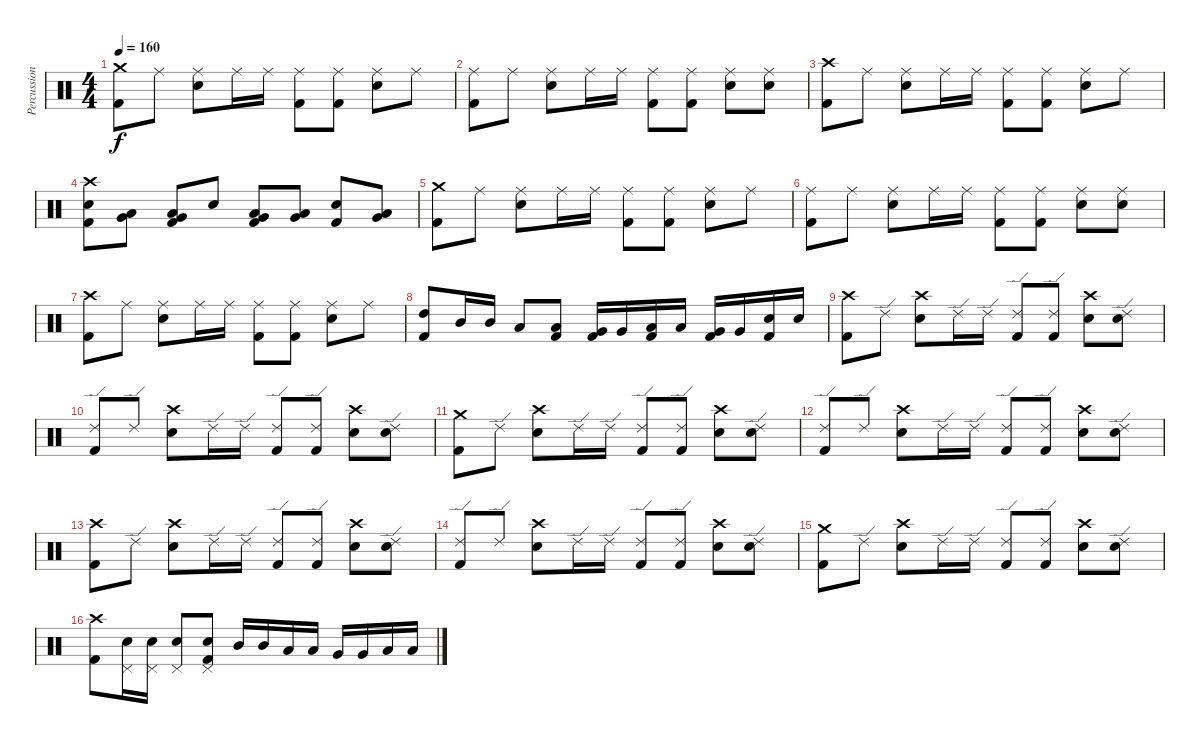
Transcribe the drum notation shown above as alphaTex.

\track ("Percussion" "Percussion") {instrument percussion}
\staff {score}
\articulation defaults
\ts (4 4)
\tempo 160
\clef neutral
\ks c
("Crash medium (hit)" "Kick (hit) 2").8{dy f} "Ride (middle)".8 ("Ride (middle)" "Electric Snare (hit)").8 "Ride (middle)".16 "Ride (middle)".16 ("Ride (middle)" "Kick (hit) 2").8 ("Ride (middle)" "Kick (hit) 2").8 ("Ride (middle)" "Electric Snare (hit)").8 "Ride (middle)".8 |
("Ride (middle)" "Kick (hit) 2").8 "Ride (middle)".8 ("Ride (middle)" "Electric Snare (hit)").8 "Ride (middle)".16 "Ride (middle)".16 ("Ride (middle)" "Kick (hit) 2").8 ("Ride (middle)" "Kick (hit) 2").8 ("Ride (middle)" "Electric Snare (hit)").8 ("Ride (middle)" "Electric Snare (hit)").8 |
("Crash high (hit)" "Kick (hit) 2").8 "Ride (middle)".8 ("Ride (middle)" "Electric Snare (hit)").8 "Ride (middle)".16 "Ride (middle)".16 ("Ride (middle)" "Kick (hit) 2").8 ("Ride (middle)" "Kick (hit) 2").8 ("Ride (middle)" "Electric Snare (hit)").8 "Ride (middle)".8 |
("Crash high (hit)" "Electric Snare (hit)" "Kick (hit) 2").8 ("Very Low Tom (hit)" "Low Floor Tom (hit)").8 ("Very Low Tom (hit)" "Low Floor Tom (hit)" "Kick (hit) 2").8 "Electric Snare (hit)".8 ("Very Low Tom (hit)" "Low Floor Tom (hit)" "Kick (hit) 2").8 ("Very Low Tom (hit)" "Low Floor Tom (hit)").8 ("Electric Snare (hit)" "Kick (hit) 2").8 ("Very Low Tom (hit)" "Low Floor Tom (hit)").8 |
("Crash medium (hit)" "Kick (hit) 2").8 "Ride (middle)".8 ("Ride (middle)" "Electric Snare (hit)").8 "Ride (middle)".16 "Ride (middle)".16 ("Ride (middle)" "Kick (hit) 2").8 ("Ride (middle)" "Kick (hit) 2").8 ("Ride (middle)" "Electric Snare (hit)").8 "Ride (middle)".8 |
("Ride (middle)" "Kick (hit) 2").8 "Ride (middle)".8 ("Ride (middle)" "Electric Snare (hit)").8 "Ride (middle)".16 "Ride (middle)".16 ("Ride (middle)" "Kick (hit) 2").8 ("Ride (middle)" "Kick (hit) 2").8 ("Ride (middle)" "Electric Snare (hit)").8 ("Ride (middle)" "Electric Snare (hit)").8 |
("Crash high (hit)" "Kick (hit) 2").8 "Ride (middle)".8 ("Ride (middle)" "Electric Snare (hit)").8 "Ride (middle)".16 "Ride (middle)".16 ("Ride (middle)" "Kick (hit) 2").8 ("Ride (middle)" "Kick (hit) 2").8 ("Ride (middle)" "Electric Snare (hit)").8 "Ride (middle)".8 |
("High Tom (hit)" "Kick (hit) 2").8 "Mid Tom (hit)".16 "Mid Tom (hit)".16 "Low Tom (hit)".8 ("Low Tom (hit)" "Kick (hit) 2").8 ("Very Low Tom (hit)" "Kick (hit) 2").16 "Very Low Tom (hit)".16 ("Low Floor Tom (hit)" "Kick (hit) 2").16 "Low Floor Tom (hit)".16 ("Very Low Tom (hit)" "Kick (hit) 2").16 "Very Low Tom (hit)".16 ("Electric Snare (hit)" "Kick (hit) 2").16 "Electric Snare (hit)".16 |
("Crash high (hit)" "Kick (hit) 2").8 "Ride (edge) 2".8 ("Crash high (hit)" "Electric Snare (hit)").8 "Ride (edge) 2".16 "Ride (edge) 2".16 ("Ride (edge) 2" "Kick (hit) 2").8 ("Ride (edge) 2" "Kick (hit) 2").8 ("Crash high (hit)" "Electric Snare (hit)").8 ("Ride (edge) 2" "Electric Snare (hit)").8 |
("Ride (edge) 2" "Kick (hit) 2").8 "Ride (edge) 2".8 ("Crash high (hit)" "Electric Snare (hit)").8 "Ride (edge) 2".16 "Ride (edge) 2".16 ("Ride (edge) 2" "Kick (hit) 2").8 ("Ride (edge) 2" "Kick (hit) 2").8 ("Crash high (hit)" "Electric Snare (hit)").8 ("Ride (edge) 2" "Electric Snare (hit)").8 |
("Crash medium (hit)" "Kick (hit) 2").8 "Ride (edge) 2".8 ("Crash high (hit)" "Electric Snare (hit)").8 "Ride (edge) 2".16 "Ride (edge) 2".16 ("Ride (edge) 2" "Kick (hit) 2").8 ("Ride (edge) 2" "Kick (hit) 2").8 ("Crash high (hit)" "Electric Snare (hit)").8 ("Ride (edge) 2" "Electric Snare (hit)").8 |
("Ride (edge) 2" "Kick (hit) 2").8 "Ride (edge) 2".8 ("Crash high (hit)" "Electric Snare (hit)").8 "Ride (edge) 2".16 "Ride (edge) 2".16 ("Ride (edge) 2" "Kick (hit) 2").8 ("Ride (edge) 2" "Kick (hit) 2").8 ("Crash high (hit)" "Electric Snare (hit)").8 ("Ride (edge) 2" "Electric Snare (hit)").8 |
("Crash high (hit)" "Kick (hit) 2").8 "Ride (edge) 2".8 ("Crash high (hit)" "Electric Snare (hit)").8 "Ride (edge) 2".16 "Ride (edge) 2".16 ("Ride (edge) 2" "Kick (hit) 2").8 ("Ride (edge) 2" "Kick (hit) 2").8 ("Crash high (hit)" "Electric Snare (hit)").8 ("Ride (edge) 2" "Electric Snare (hit)").8 |
("Ride (edge) 2" "Kick (hit) 2").8 "Ride (edge) 2".8 ("Crash high (hit)" "Electric Snare (hit)").8 "Ride (edge) 2".16 "Ride (edge) 2".16 ("Ride (edge) 2" "Kick (hit) 2").8 ("Ride (edge) 2" "Kick (hit) 2").8 ("Crash high (hit)" "Electric Snare (hit)").8 ("Ride (edge) 2" "Electric Snare (hit)").8 |
("Crash medium (hit)" "Kick (hit) 2").8 "Ride (edge) 2".8 ("Crash high (hit)" "Electric Snare (hit)").8 "Ride (edge) 2".16 "Ride (edge) 2".16 ("Ride (edge) 2" "Kick (hit) 2").8 ("Ride (edge) 2" "Kick (hit) 2").8 ("Crash high (hit)" "Electric Snare (hit)").8 ("Ride (edge) 2" "Electric Snare (hit)").8 |
("Crash high (hit)" "Kick (hit) 2").8 ("Pedal Hi-Hat (hit)" "Electric Snare (hit)").16 ("Pedal Hi-Hat (hit)" "Electric Snare (hit)").16 ("Pedal Hi-Hat (hit)" "Electric Snare (hit)").8 ("Pedal Hi-Hat (hit)" "Electric Snare (hit)" "Kick (hit) 2").8 "Mid Tom (hit)".16 "Mid Tom (hit)".16 "Low Tom (hit)".16 "Low Tom (hit)".16 "Very Low Tom (hit)".16 "Very Low Tom (hit)".16 "Low Floor Tom (hit)".16 "Low Floor Tom (hit)".16
